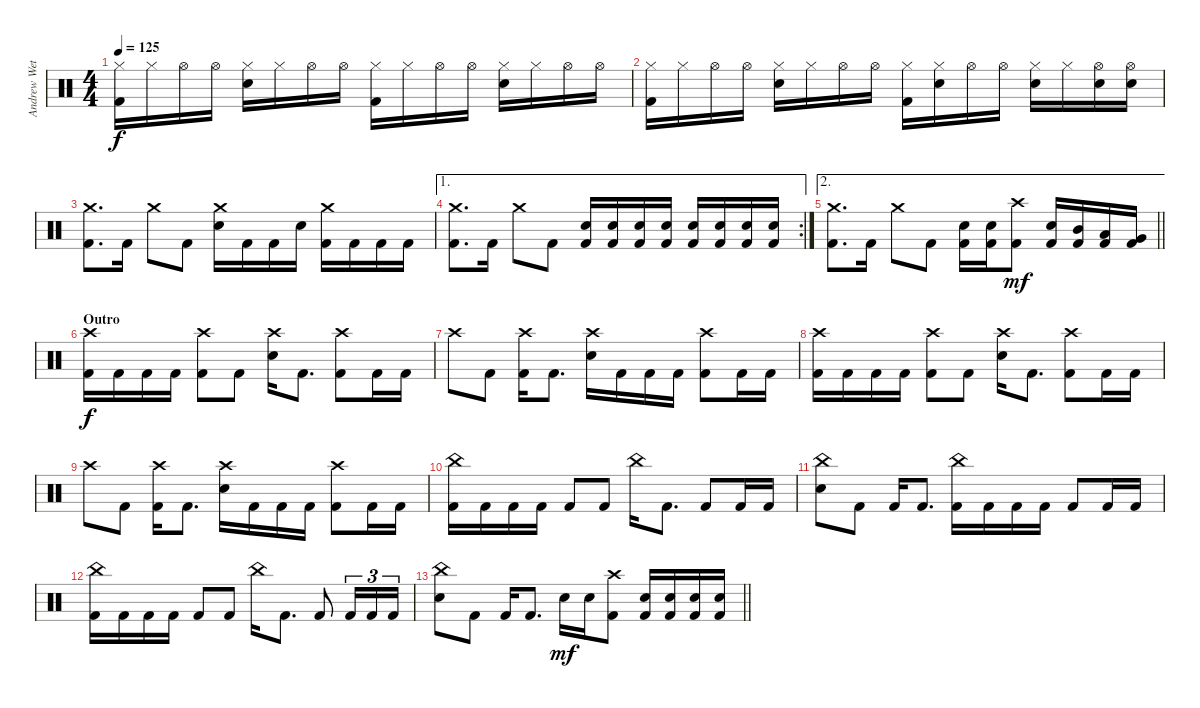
\track ("Andrew Wetzel" "Andrew Wet") {instrument percussion}
\staff {score}
\articulation defaults
\ts (4 4)
\tempo 125
\clef neutral
\ks c
("Hi-Hat (closed)" "Kick (hit) 2").16{dy f} "Hi-Hat (closed)".16 "Hi-Hat (open)".16 "Hi-Hat (open)".16 ("Hi-Hat (closed)" "Snare (hit) 2").16 "Hi-Hat (closed)".16 "Hi-Hat (open)".16 "Hi-Hat (open)".16 ("Hi-Hat (closed)" "Kick (hit) 2").16 "Hi-Hat (closed)".16 "Hi-Hat (open)".16 "Hi-Hat (open)".16 ("Hi-Hat (closed)" "Snare (hit) 2").16 "Hi-Hat (closed)".16 "Hi-Hat (open)".16 "Hi-Hat (open)".16 |
("Hi-Hat (closed)" "Kick (hit) 2").16 "Hi-Hat (closed)".16 "Hi-Hat (open)".16 "Hi-Hat (open)".16 ("Hi-Hat (closed)" "Snare (hit) 2").16 "Hi-Hat (closed)".16 "Hi-Hat (open)".16 "Hi-Hat (open)".16 ("Hi-Hat (closed)" "Kick (hit) 2").16 ("Hi-Hat (closed)" "Snare (hit) 2").16 "Hi-Hat (open)".16 "Hi-Hat (open)".16 ("Hi-Hat (closed)" "Snare (hit) 2").16 "Hi-Hat (closed)".16 ("Hi-Hat (open)" "Snare (hit) 2").16 ("Hi-Hat (open)" "Snare (hit) 2").16 |
("Crash medium (hit)" "Kick (hit) 2").8{d} "Kick (hit) 2".16 "Crash medium (hit)".8 "Kick (hit) 2".8 ("Crash medium (hit)" "Snare (hit) 2").16 "Kick (hit) 2".16 "Kick (hit) 2".16 "Snare (hit) 2".16 ("Crash medium (hit)" "Kick (hit) 2").16 "Kick (hit) 2".16 "Kick (hit) 2".16 "Kick (hit) 2".16 |
\ae 1
\rc 2
("Crash medium (hit)" "Kick (hit) 2").8{d} "Kick (hit) 2".16 "Crash medium (hit)".8 "Kick (hit) 2".8 ("Snare (hit) 2" "Kick (hit) 2").16 ("Snare (hit) 2" "Kick (hit) 2").16 ("Snare (hit) 2" "Kick (hit) 2").16 ("Snare (hit) 2" "Kick (hit) 2").16 ("Snare (hit) 2" "Kick (hit) 2").16 ("Snare (hit) 2" "Kick (hit) 2").16 ("Snare (hit) 2" "Kick (hit) 2").16 ("Snare (hit) 2" "Kick (hit) 2").16 |
\ae 2
\barLineRight lightlight
("Crash medium (hit)" "Kick (hit) 2").8{d} "Kick (hit) 2".16 "Crash medium (hit)".8 "Kick (hit) 2".8 ("Snare (hit) 2" "Kick (hit) 2").16 ("Snare (hit) 2" "Kick (hit) 2").16 ("Crash high (hit)" "Kick (hit) 2").8{dy mf} ("Snare (hit) 2" "Kick (hit) 2").16 ("Mid Tom (hit)" "Kick (hit) 2").16 ("Low Tom (hit)" "Kick (hit) 2").16 ("Very Low Tom (hit)" "Kick (hit) 2").16 |
\section ("" "Outro")
("Crash high (hit)" "Kick (hit) 2").16{dy f} "Kick (hit) 2".16 "Kick (hit) 2".16 "Kick (hit) 2".16 ("Crash high (hit)" "Kick (hit) 2").8 "Kick (hit) 2".8 ("Crash high (hit)" "Snare (hit) 2").16 "Kick (hit) 2".8{d} ("Crash high (hit)" "Kick (hit) 2").8 "Kick (hit) 2".16 "Kick (hit) 2".16 |
"Crash high (hit)".8 "Kick (hit) 2".8 ("Crash high (hit)" "Kick (hit) 2").16 "Kick (hit) 2".8{d} ("Crash high (hit)" "Snare (hit) 2").16 "Kick (hit) 2".16 "Kick (hit) 2".16 "Kick (hit) 2".16 ("Crash high (hit)" "Kick (hit) 2").8 "Kick (hit) 2".16 "Kick (hit) 2".16 |
("Crash high (hit)" "Kick (hit) 2").16 "Kick (hit) 2".16 "Kick (hit) 2".16 "Kick (hit) 2".16 ("Crash high (hit)" "Kick (hit) 2").8 "Kick (hit) 2".8 ("Crash high (hit)" "Snare (hit) 2").16 "Kick (hit) 2".8{d} ("Crash high (hit)" "Kick (hit) 2").8 "Kick (hit) 2".16 "Kick (hit) 2".16 |
"Crash high (hit)".8 "Kick (hit) 2".8 ("Crash high (hit)" "Kick (hit) 2").16 "Kick (hit) 2".8{d} ("Crash high (hit)" "Snare (hit) 2").16 "Kick (hit) 2".16 "Kick (hit) 2".16 "Kick (hit) 2".16 ("Crash high (hit)" "Kick (hit) 2").8 "Kick (hit) 2".16 "Kick (hit) 2".16 |
("China (hit)" "Kick (hit) 2").16 "Kick (hit) 2".16 "Kick (hit) 2".16 "Kick (hit) 2".16 "Kick (hit) 2".8 "Kick (hit) 2".8 "China (hit)".16 "Kick (hit) 2".8{d} "Kick (hit) 2".8 "Kick (hit) 2".16 "Kick (hit) 2".16 |
("China (hit)" "Snare (hit) 2").8 "Kick (hit) 2".8 "Kick (hit) 2".16 "Kick (hit) 2".8{d} ("China (hit)" "Kick (hit) 2").16 "Kick (hit) 2".16 "Kick (hit) 2".16 "Kick (hit) 2".16 "Kick (hit) 2".8 "Kick (hit) 2".16 "Kick (hit) 2".16 |
("China (hit)" "Kick (hit) 2").16 "Kick (hit) 2".16 "Kick (hit) 2".16 "Kick (hit) 2".16 "Kick (hit) 2".8 "Kick (hit) 2".8 "China (hit)".16 "Kick (hit) 2".8{d} "Kick (hit) 2".8 "Kick (hit) 2".16{tu (3 2)} "Kick (hit) 2".16{tu (3 2)} "Kick (hit) 2".16{tu (3 2)} |
\barLineRight lightlight
("China (hit)" "Snare (hit) 2").8 "Kick (hit) 2".8 "Kick (hit) 2".16 "Kick (hit) 2".8{d} "Snare (hit) 2".16{dy mf} "Snare (hit) 2".16 ("Crash high (hit)" "Kick (hit) 2").8 ("Snare (hit) 2" "Kick (hit) 2").16 ("Snare (hit) 2" "Kick (hit) 2").16 ("Snare (hit) 2" "Kick (hit) 2").16 ("Snare (hit) 2" "Kick (hit) 2").16
